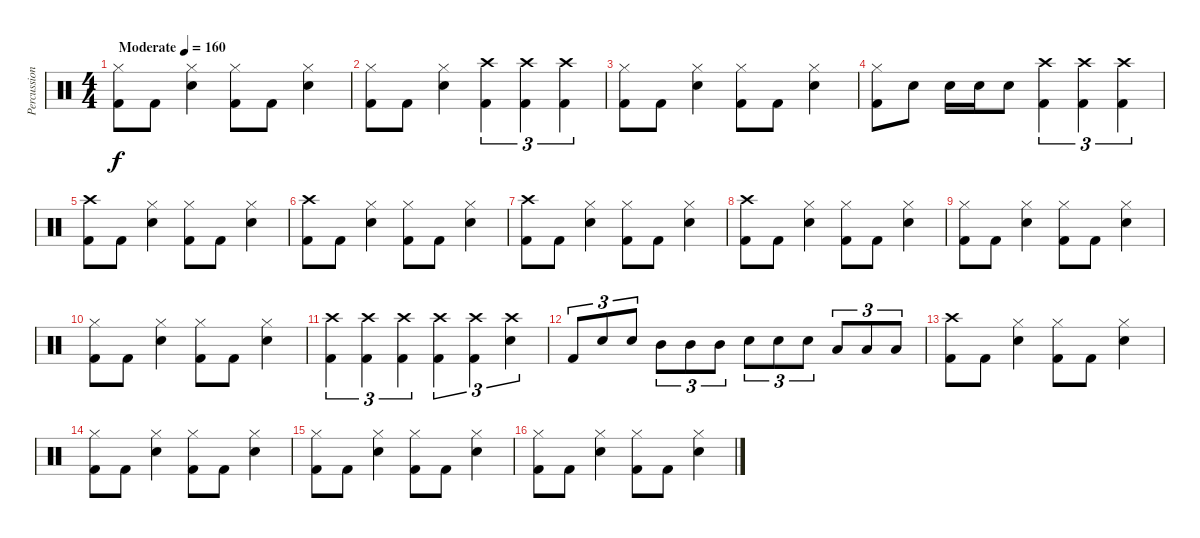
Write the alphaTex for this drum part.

\track ("Percussioni" "Percussion") {instrument percussion}
\staff {score}
\articulation defaults
\ts (4 4)
\tempo (160 "Moderate")
\clef neutral
\ks c
("Hi-Hat (closed)" "Kick (hit) 2").8{dy f} "Kick (hit) 2".8 ("Hi-Hat (closed)" "Snare (hit) 2").4 ("Hi-Hat (closed)" "Kick (hit) 2").8 "Kick (hit) 2".8 ("Hi-Hat (closed)" "Snare (hit) 2").4 |
("Hi-Hat (closed)" "Kick (hit) 2").8 "Kick (hit) 2".8 ("Hi-Hat (closed)" "Snare (hit) 2").4 ("Crash high (hit)" "Kick (hit) 2").4{tu (3 2)} ("Crash high (hit)" "Kick (hit) 2").4{tu (3 2)} ("Crash high (hit)" "Kick (hit) 2").4{tu (3 2)} |
("Hi-Hat (closed)" "Kick (hit) 2").8 "Kick (hit) 2".8 ("Hi-Hat (closed)" "Snare (hit) 2").4 ("Hi-Hat (closed)" "Kick (hit) 2").8 "Kick (hit) 2".8 ("Hi-Hat (closed)" "Snare (hit) 2").4 |
("Hi-Hat (closed)" "Kick (hit) 2").8 "Snare (hit) 2".8 "Snare (hit) 2".16 "Snare (hit) 2".16 "Snare (hit) 2".8 ("Crash high (hit)" "Kick (hit) 2").4{tu (3 2)} ("Crash high (hit)" "Kick (hit) 2").4{tu (3 2)} ("Crash high (hit)" "Kick (hit) 2").4{tu (3 2)} |
("Crash high (hit)" "Kick (hit) 2").8 "Kick (hit) 2".8 ("Hi-Hat (closed)" "Snare (hit) 2").4 ("Hi-Hat (closed)" "Kick (hit) 2").8 "Kick (hit) 2".8 ("Hi-Hat (closed)" "Snare (hit) 2").4 |
("Crash high (hit)" "Kick (hit) 2").8 "Kick (hit) 2".8 ("Hi-Hat (closed)" "Snare (hit) 2").4 ("Hi-Hat (closed)" "Kick (hit) 2").8 "Kick (hit) 2".8 ("Hi-Hat (closed)" "Snare (hit) 2").4 |
("Crash high (hit)" "Kick (hit) 2").8 "Kick (hit) 2".8 ("Hi-Hat (closed)" "Snare (hit) 2").4 ("Hi-Hat (closed)" "Kick (hit) 2").8 "Kick (hit) 2".8 ("Hi-Hat (closed)" "Snare (hit) 2").4 |
("Crash high (hit)" "Kick (hit) 2").8 "Kick (hit) 2".8 ("Hi-Hat (closed)" "Snare (hit) 2").4 ("Hi-Hat (closed)" "Kick (hit) 2").8 "Kick (hit) 2".8 ("Hi-Hat (closed)" "Snare (hit) 2").4 |
("Hi-Hat (closed)" "Kick (hit) 2").8 "Kick (hit) 2".8 ("Hi-Hat (closed)" "Snare (hit) 2").4 ("Hi-Hat (closed)" "Kick (hit) 2").8 "Kick (hit) 2".8 ("Hi-Hat (closed)" "Snare (hit) 2").4 |
("Hi-Hat (closed)" "Kick (hit) 2").8 "Kick (hit) 2".8 ("Hi-Hat (closed)" "Snare (hit) 2").4 ("Hi-Hat (closed)" "Kick (hit) 2").8 "Kick (hit) 2".8 ("Hi-Hat (closed)" "Snare (hit) 2").4 |
("Crash high (hit)" "Kick (hit) 2").4{tu (3 2)} ("Crash high (hit)" "Kick (hit) 2").4{tu (3 2)} ("Crash high (hit)" "Kick (hit) 2").4{tu (3 2)} ("Crash high (hit)" "Kick (hit) 2").4{tu (3 2)} ("Crash high (hit)" "Kick (hit) 2").4{tu (3 2)} ("Crash high (hit)" "Snare (hit) 2").4{tu (3 2)} |
"Kick (hit) 2".8{tu (3 2)} "Snare (hit) 2".8{tu (3 2)} "Snare (hit) 2".8{tu (3 2)} "Mid Tom (hit)".8{tu (3 2)} "Mid Tom (hit)".8{tu (3 2)} "Mid Tom (hit)".8{tu (3 2)} "Snare (hit) 2".8{tu (3 2)} "Snare (hit) 2".8{tu (3 2)} "Snare (hit) 2".8{tu (3 2)} "Low Floor Tom (hit)".8{tu (3 2)} "Low Floor Tom (hit)".8{tu (3 2)} "Low Floor Tom (hit)".8{tu (3 2)} |
("Crash high (hit)" "Kick (hit) 2").8 "Kick (hit) 2".8 ("Hi-Hat (closed)" "Snare (hit) 2").4 ("Hi-Hat (closed)" "Kick (hit) 2").8 "Kick (hit) 2".8 ("Hi-Hat (closed)" "Snare (hit) 2").4 |
("Hi-Hat (closed)" "Kick (hit) 2").8 "Kick (hit) 2".8 ("Hi-Hat (closed)" "Snare (hit) 2").4 ("Hi-Hat (closed)" "Kick (hit) 2").8 "Kick (hit) 2".8 ("Hi-Hat (closed)" "Snare (hit) 2").4 |
("Hi-Hat (closed)" "Kick (hit) 2").8 "Kick (hit) 2".8 ("Hi-Hat (closed)" "Snare (hit) 2").4 ("Hi-Hat (closed)" "Kick (hit) 2").8 "Kick (hit) 2".8 ("Hi-Hat (closed)" "Snare (hit) 2").4 |
("Hi-Hat (closed)" "Kick (hit) 2").8 "Kick (hit) 2".8 ("Hi-Hat (closed)" "Snare (hit) 2").4 ("Hi-Hat (closed)" "Kick (hit) 2").8 "Kick (hit) 2".8 ("Hi-Hat (closed)" "Snare (hit) 2").4
